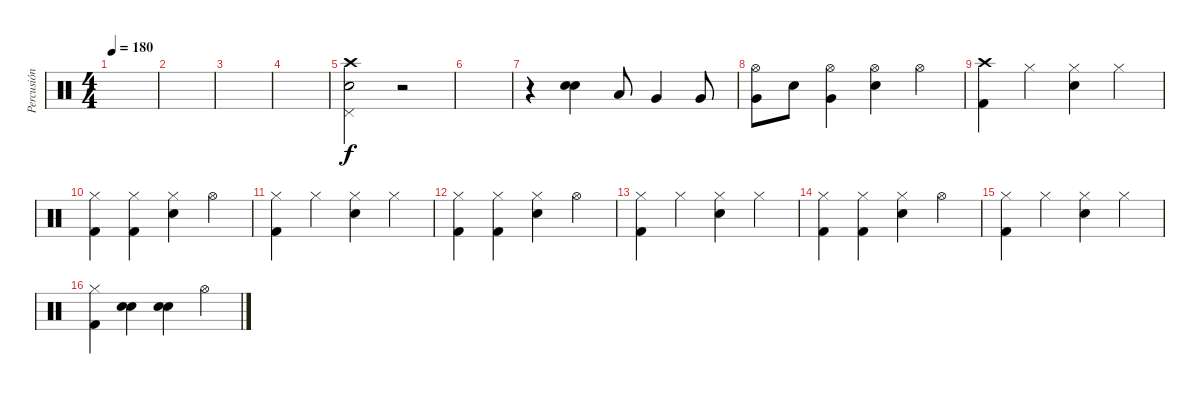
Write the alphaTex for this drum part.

\track ("Percusión" "Percusión") {instrument percussion}
\staff {score}
\articulation defaults
\ts (4 4)
\tempo 180
\clef neutral
\ks c
|
|
|
|
("Crash high (hit)" "Pedal Hi-Hat (hit)" "Snare (hit) 2").2 r.2 |
|
r.4 ("Snare (hit) 2" "Snare (hit) 2").4{bu 240} "Low Tom (hit)".8 "Very Low Tom (hit)".4 "Very Low Tom (hit)".8 |
("Hi-Hat (open)" "Very Low Tom (hit)").8 "Snare (hit) 2".8 ("Hi-Hat (open)" "Very Low Tom (hit)").4 ("Hi-Hat (open)" "Snare (hit) 2").4 "Hi-Hat (open)".4 |
("Crash high (hit)" "Kick (hit) 2").4 "Hi-Hat (closed)".4 ("Hi-Hat (closed)" "Snare (hit) 2").4 "Hi-Hat (closed)".4 |
("Hi-Hat (closed)" "Kick (hit) 2").4 ("Hi-Hat (closed)" "Kick (hit) 2").4 ("Hi-Hat (closed)" "Snare (hit) 2").4 "Hi-Hat (open)".4 |
("Hi-Hat (closed)" "Kick (hit) 2").4 "Hi-Hat (closed)".4 ("Hi-Hat (closed)" "Snare (hit) 2").4 "Hi-Hat (closed)".4 |
("Hi-Hat (closed)" "Kick (hit) 2").4 ("Hi-Hat (closed)" "Kick (hit) 2").4 ("Hi-Hat (closed)" "Snare (hit) 2").4 "Hi-Hat (open)".4 |
("Hi-Hat (closed)" "Kick (hit) 2").4 "Hi-Hat (closed)".4 ("Hi-Hat (closed)" "Snare (hit) 2").4 "Hi-Hat (closed)".4 |
("Hi-Hat (closed)" "Kick (hit) 2").4 ("Hi-Hat (closed)" "Kick (hit) 2").4 ("Hi-Hat (closed)" "Snare (hit) 2").4 "Hi-Hat (open)".4 |
("Hi-Hat (closed)" "Kick (hit) 2").4 "Hi-Hat (closed)".4 ("Hi-Hat (closed)" "Snare (hit) 2").4 "Hi-Hat (closed)".4 |
("Hi-Hat (closed)" "Kick (hit) 2").4 ("Snare (hit) 2" "Snare (hit) 2").4{bu 240} ("Snare (hit) 2" "Snare (hit) 2").4{bu 240} "Hi-Hat (open)".4
